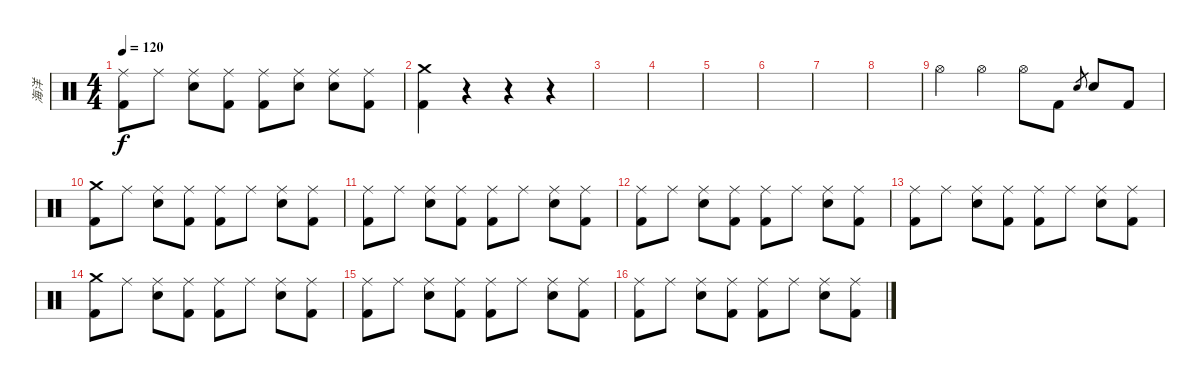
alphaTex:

\track ("海洋" "海洋") {instrument percussion}
\staff {score}
\articulation defaults
\ts (4 4)
\tempo 120
\clef neutral
\ks c
("Ride (middle)" "Kick (hit) 2").8{dy f} "Ride (middle)".8 ("Ride (middle)" "Electric Snare (hit)").8 ("Ride (middle)" "Kick (hit) 2").8 ("Ride (middle)" "Kick (hit) 2").8 ("Ride (middle)" "Electric Snare (hit)").8 ("Ride (middle)" "Electric Snare (hit)").8 ("Ride (middle)" "Kick (hit) 2").8 |
("Crash medium (hit)" "Kick (hit) 2").4 r.4 r.4 r.4 |
|
|
|
|
|
|
"Hi-Hat (open)".4 "Hi-Hat (open)".4 "Hi-Hat (open)".8 "Kick (hit) 2".8 "Electric Snare (hit)".8{gr} "Electric Snare (hit)".8 "Kick (hit) 2".8 |
("Crash medium (hit)" "Kick (hit) 2").8 "Ride (middle)".8 ("Ride (middle)" "Electric Snare (hit)").8 ("Ride (middle)" "Kick (hit) 2").8 ("Ride (middle)" "Kick (hit) 2").8 "Ride (middle)".8 ("Ride (middle)" "Electric Snare (hit)").8 ("Ride (middle)" "Kick (hit) 2").8 |
("Ride (middle)" "Kick (hit) 2").8 "Ride (middle)".8 ("Ride (middle)" "Electric Snare (hit)").8 ("Ride (middle)" "Kick (hit) 2").8 ("Ride (middle)" "Kick (hit) 2").8 "Ride (middle)".8 ("Ride (middle)" "Electric Snare (hit)").8 ("Ride (middle)" "Kick (hit) 2").8 |
("Ride (middle)" "Kick (hit) 2").8 "Ride (middle)".8 ("Ride (middle)" "Electric Snare (hit)").8 ("Ride (middle)" "Kick (hit) 2").8 ("Ride (middle)" "Kick (hit) 2").8 "Ride (middle)".8 ("Ride (middle)" "Electric Snare (hit)").8 ("Ride (middle)" "Kick (hit) 2").8 |
("Ride (middle)" "Kick (hit) 2").8 "Ride (middle)".8 ("Ride (middle)" "Electric Snare (hit)").8 ("Ride (middle)" "Kick (hit) 2").8 ("Ride (middle)" "Kick (hit) 2").8 "Ride (middle)".8 ("Ride (middle)" "Electric Snare (hit)").8 ("Ride (middle)" "Kick (hit) 2").8 |
("Crash medium (hit)" "Kick (hit) 2").8 "Ride (middle)".8 ("Ride (middle)" "Electric Snare (hit)").8 ("Ride (middle)" "Kick (hit) 2").8 ("Ride (middle)" "Kick (hit) 2").8 "Ride (middle)".8 ("Ride (middle)" "Electric Snare (hit)").8 ("Ride (middle)" "Kick (hit) 2").8 |
("Ride (middle)" "Kick (hit) 2").8 "Ride (middle)".8 ("Ride (middle)" "Electric Snare (hit)").8 ("Ride (middle)" "Kick (hit) 2").8 ("Ride (middle)" "Kick (hit) 2").8 "Ride (middle)".8 ("Ride (middle)" "Electric Snare (hit)").8 ("Ride (middle)" "Kick (hit) 2").8 |
("Ride (middle)" "Kick (hit) 2").8 "Ride (middle)".8 ("Ride (middle)" "Electric Snare (hit)").8 ("Ride (middle)" "Kick (hit) 2").8 ("Ride (middle)" "Kick (hit) 2").8 "Ride (middle)".8 ("Ride (middle)" "Electric Snare (hit)").8 ("Ride (middle)" "Kick (hit) 2").8
